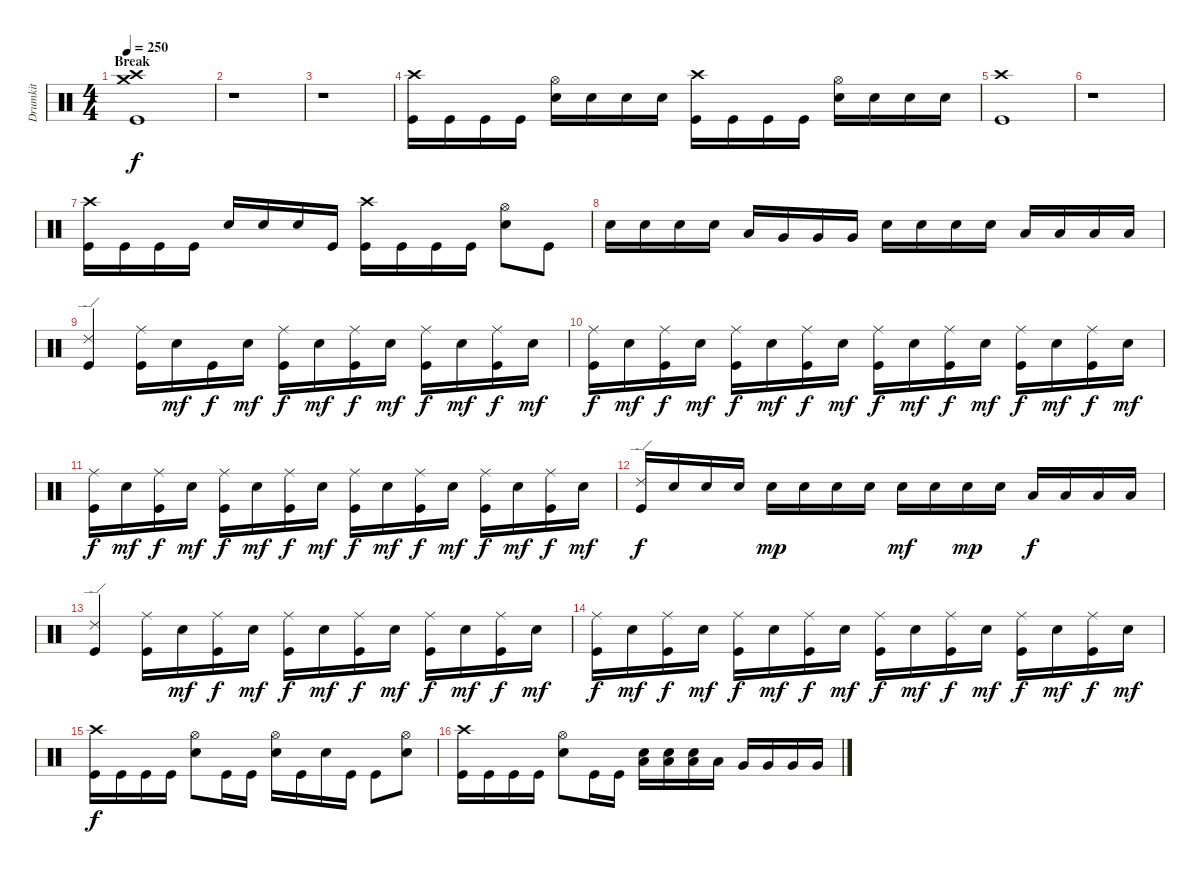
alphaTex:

\track ("Drumkit" "Drumkit") {instrument percussion}
\staff {score}
\articulation defaults
\ts (4 4)
\section ("" "Break")
\tempo 250
\clef neutral
\ks c
("Kick (hit)" "Crash medium (hit)" "Crash high (hit)").1{dy f} |
r.1 |
r.1 |
("Kick (hit)" "Crash high (hit)").16 "Kick (hit)".16 "Kick (hit)".16 "Kick (hit)".16 ("Snare (hit) 2" "Hi-Hat (open)").16 "Snare (hit) 2".16 "Snare (hit) 2".16 "Snare (hit) 2".16 ("Kick (hit)" "Crash high (hit)").16 "Kick (hit)".16 "Kick (hit)".16 "Kick (hit)".16 ("Snare (hit) 2" "Hi-Hat (open)").16 "Snare (hit) 2".16 "Snare (hit) 2".16 "Snare (hit) 2".16 |
("Kick (hit)" "Crash high (hit)").1 |
r.1 |
("Kick (hit)" "Crash high (hit)").16 "Kick (hit)".16 "Kick (hit)".16 "Kick (hit)".16 "Snare (hit) 2".16 "Snare (hit) 2".16 "Snare (hit) 2".16 "Kick (hit)".16 ("Kick (hit)" "Crash high (hit)").16 "Kick (hit)".16 "Kick (hit)".16 "Kick (hit)".16 ("Snare (hit) 2" "Hi-Hat (open)").8 "Kick (hit)".8 |
"Snare (hit) 2".16 "Snare (hit) 2".16 "Snare (hit) 2".16 "Snare (hit) 2".16 "Low Tom (hit)".16 "Very Low Tom (hit)".16 "Very Low Tom (hit)".16 "Very Low Tom (hit)".16 "Snare (hit) 2".16 "Snare (hit) 2".16 "Snare (hit) 2".16 "Snare (hit) 2".16 "Low Floor Tom (hit)".16 "Low Floor Tom (hit)".16 "Low Floor Tom (hit)".16 "Low Floor Tom (hit)".16 |
("Kick (hit)" "Ride (edge) 2").4 ("Kick (hit)" "Ride (middle)").16 "Snare (hit) 2".16{dy mf} "Kick (hit)".16{dy f} "Snare (hit) 2".16{dy mf} ("Kick (hit)" "Ride (middle)").16{dy f} "Snare (hit) 2".16{dy mf} ("Kick (hit)" "Ride (middle)").16{dy f} "Snare (hit) 2".16{dy mf} ("Kick (hit)" "Ride (middle)").16{dy f} "Snare (hit) 2".16{dy mf} ("Kick (hit)" "Ride (middle)").16{dy f} "Snare (hit) 2".16{dy mf} |
("Kick (hit)" "Ride (middle)").16{dy f} "Snare (hit) 2".16{dy mf} ("Kick (hit)" "Ride (middle)").16{dy f} "Snare (hit) 2".16{dy mf} ("Kick (hit)" "Ride (middle)").16{dy f} "Snare (hit) 2".16{dy mf} ("Kick (hit)" "Ride (middle)").16{dy f} "Snare (hit) 2".16{dy mf} ("Kick (hit)" "Ride (middle)").16{dy f} "Snare (hit) 2".16{dy mf} ("Kick (hit)" "Ride (middle)").16{dy f} "Snare (hit) 2".16{dy mf} ("Kick (hit)" "Ride (middle)").16{dy f} "Snare (hit) 2".16{dy mf} ("Kick (hit)" "Ride (middle)").16{dy f} "Snare (hit) 2".16{dy mf} |
("Kick (hit)" "Ride (middle)").16{dy f} "Snare (hit) 2".16{dy mf} ("Kick (hit)" "Ride (middle)").16{dy f} "Snare (hit) 2".16{dy mf} ("Kick (hit)" "Ride (middle)").16{dy f} "Snare (hit) 2".16{dy mf} ("Kick (hit)" "Ride (middle)").16{dy f} "Snare (hit) 2".16{dy mf} ("Kick (hit)" "Ride (middle)").16{dy f} "Snare (hit) 2".16{dy mf} ("Kick (hit)" "Ride (middle)").16{dy f} "Snare (hit) 2".16{dy mf} ("Kick (hit)" "Ride (middle)").16{dy f} "Snare (hit) 2".16{dy mf} ("Kick (hit)" "Ride (middle)").16{dy f} "Snare (hit) 2".16{dy mf} |
("Kick (hit)" "Ride (edge) 2").16{dy f} "Snare (hit) 2".16 "Snare (hit) 2".16 "Snare (hit) 2".16 "Snare (hit) 2".16{dy mp} "Snare (hit) 2".16 "Snare (hit) 2".16 "Snare (hit) 2".16 "Snare (hit) 2".16{dy mf} "Snare (hit) 2".16 "Snare (hit) 2".16{dy mp} "Snare (hit) 2".16 "Low Floor Tom (hit)".16{dy f} "Low Floor Tom (hit)".16 "Low Floor Tom (hit)".16 "Low Floor Tom (hit)".16 |
("Kick (hit)" "Ride (edge) 2").4 ("Kick (hit)" "Ride (middle)").16 "Snare (hit) 2".16{dy mf} ("Kick (hit)" "Ride (middle)").16{dy f} "Snare (hit) 2".16{dy mf} ("Kick (hit)" "Ride (middle)").16{dy f} "Snare (hit) 2".16{dy mf} ("Kick (hit)" "Ride (middle)").16{dy f} "Snare (hit) 2".16{dy mf} ("Kick (hit)" "Ride (middle)").16{dy f} "Snare (hit) 2".16{dy mf} ("Kick (hit)" "Ride (middle)").16{dy f} "Snare (hit) 2".16{dy mf} |
("Kick (hit)" "Ride (middle)").16{dy f} "Snare (hit) 2".16{dy mf} ("Kick (hit)" "Ride (middle)").16{dy f} "Snare (hit) 2".16{dy mf} ("Kick (hit)" "Ride (middle)").16{dy f} "Snare (hit) 2".16{dy mf} ("Kick (hit)" "Ride (middle)").16{dy f} "Snare (hit) 2".16{dy mf} ("Kick (hit)" "Ride (middle)").16{dy f} "Snare (hit) 2".16{dy mf} ("Kick (hit)" "Ride (middle)").16{dy f} "Snare (hit) 2".16{dy mf} ("Kick (hit)" "Ride (middle)").16{dy f} "Snare (hit) 2".16{dy mf} ("Kick (hit)" "Ride (middle)").16{dy f} "Snare (hit) 2".16{dy mf} |
("Kick (hit)" "Crash high (hit)").16{dy f} "Kick (hit)".16 "Kick (hit)".16 "Kick (hit)".16 ("Snare (hit) 2" "Hi-Hat (open)").8 "Kick (hit)".16 "Kick (hit)".16 ("Snare (hit) 2" "Hi-Hat (open)").16 "Kick (hit)".16 "Snare (hit) 2".16 "Kick (hit)".16 "Kick (hit)".8 ("Snare (hit) 2" "Hi-Hat (open)").8 |
("Kick (hit)" "Crash high (hit)").16 "Kick (hit)".16 "Kick (hit)".16 "Kick (hit)".16 ("Snare (hit) 2" "Hi-Hat (open)").8 "Kick (hit)".16 "Kick (hit)".16 ("Snare (hit) 2" "Low Tom (hit)").16 ("Snare (hit) 2" "Low Tom (hit)").16 ("Snare (hit) 2" "Low Tom (hit)").16 "Low Tom (hit)".16 "Very Low Tom (hit)".16 "Very Low Tom (hit)".16 "Very Low Tom (hit)".16 "Very Low Tom (hit)".16
